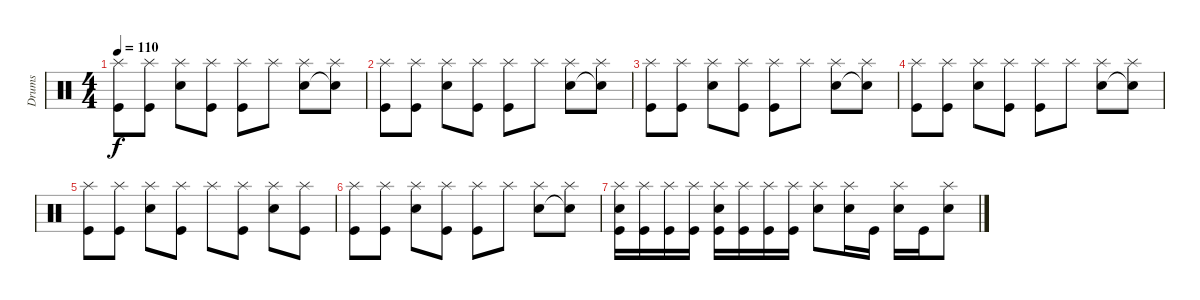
\track ("Drums" "Drums") {instrument percussion}
\staff {score}
\articulation defaults
\ts (4 4)
\tempo 110
\clef neutral
\ks c
("Kick (hit)" "Splash (hit)").8{dy f} ("Kick (hit)" "Splash (hit)").8 ("Electric Snare (hit)" "Splash (hit)").8 ("Kick (hit)" "Splash (hit)").8 ("Kick (hit)" "Splash (hit)").8 "Splash (hit)".8 ("Electric Snare (hit)" "Splash (hit)").8 ("Snare (hit)"{t} "Splash (hit)").8 |
("Kick (hit)" "Splash (hit)").8 ("Kick (hit)" "Splash (hit)").8 ("Electric Snare (hit)" "Splash (hit)").8 ("Kick (hit)" "Splash (hit)").8 ("Kick (hit)" "Splash (hit)").8 "Splash (hit)".8 ("Electric Snare (hit)" "Splash (hit)").8 ("Snare (hit)"{t} "Splash (hit)").8 |
("Kick (hit)" "Splash (hit)").8 ("Kick (hit)" "Splash (hit)").8 ("Electric Snare (hit)" "Splash (hit)").8 ("Kick (hit)" "Splash (hit)").8 ("Kick (hit)" "Splash (hit)").8 "Splash (hit)".8 ("Electric Snare (hit)" "Splash (hit)").8 ("Snare (hit)"{t} "Splash (hit)").8 |
("Kick (hit)" "Splash (hit)").8 ("Kick (hit)" "Splash (hit)").8 ("Electric Snare (hit)" "Splash (hit)").8 ("Kick (hit)" "Splash (hit)").8 ("Kick (hit)" "Splash (hit)").8 "Splash (hit)".8 ("Electric Snare (hit)" "Splash (hit)").8 ("Snare (hit)"{t} "Splash (hit)").8 |
("Kick (hit)" "Splash (hit)").8 ("Kick (hit)" "Splash (hit)").8 ("Electric Snare (hit)" "Splash (hit)").8 ("Kick (hit)" "Splash (hit)").8 "Splash (hit)".8 ("Kick (hit)" "Splash (hit)").8 ("Electric Snare (hit)" "Splash (hit)").8 ("Kick (hit)" "Splash (hit)").8 |
("Kick (hit)" "Splash (hit)").8 ("Kick (hit)" "Splash (hit)").8 ("Electric Snare (hit)" "Splash (hit)").8 ("Kick (hit)" "Splash (hit)").8 ("Kick (hit)" "Splash (hit)").8 "Splash (hit)".8 ("Electric Snare (hit)" "Splash (hit)").8 ("Snare (hit)"{t} "Splash (hit)").8 |
("Kick (hit)" "Electric Snare (hit)" "Splash (hit)").16 ("Kick (hit)" "Splash (hit)").16 ("Kick (hit)" "Splash (hit)").16 ("Kick (hit)" "Splash (hit)").16 ("Kick (hit)" "Electric Snare (hit)" "Splash (hit)").16 ("Kick (hit)" "Splash (hit)").16 ("Kick (hit)" "Splash (hit)").16 ("Kick (hit)" "Splash (hit)").16 ("Electric Snare (hit)" "Splash (hit)").8 ("Electric Snare (hit)" "Splash (hit)").16 "Kick (hit)".16 ("Electric Snare (hit)" "Splash (hit)").16 "Kick (hit)".16 ("Electric Snare (hit)" "Splash (hit)").8
